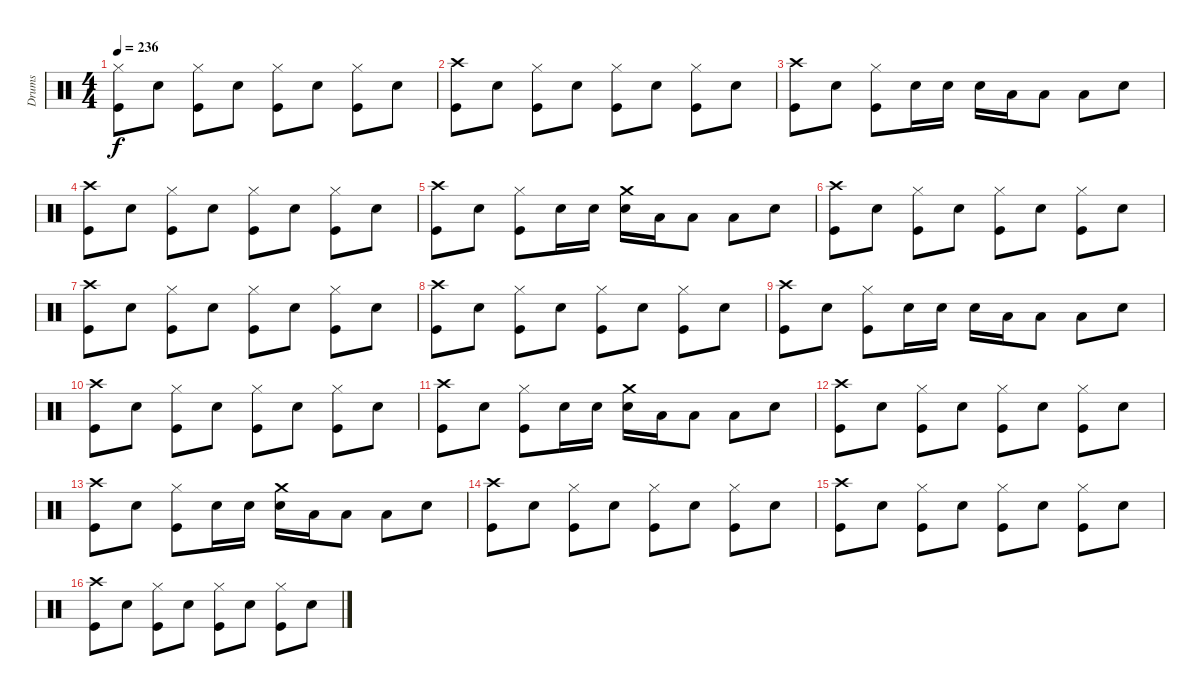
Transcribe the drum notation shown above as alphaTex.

\track ("Drums" "Drums") {instrument percussion}
\staff {score}
\articulation defaults
\ts (4 4)
\tempo 236
\clef neutral
\ks c
("Hi-Hat (closed)" "Kick (hit)").8{dy f} "Snare (hit) 2".8 ("Hi-Hat (closed)" "Kick (hit)").8 "Snare (hit) 2".8 ("Hi-Hat (closed)" "Kick (hit)").8 "Snare (hit) 2".8 ("Hi-Hat (closed)" "Kick (hit)").8 "Snare (hit) 2".8 |
("Crash high (hit)" "Kick (hit)").8 "Snare (hit) 2".8 ("Hi-Hat (closed)" "Kick (hit)").8 "Snare (hit) 2".8 ("Hi-Hat (closed)" "Kick (hit)").8 "Snare (hit) 2".8 ("Hi-Hat (closed)" "Kick (hit)").8 "Snare (hit) 2".8 |
("Crash high (hit)" "Kick (hit)").8 "Snare (hit) 2".8 ("Hi-Hat (closed)" "Kick (hit)").8 "Snare (hit) 2".16 "Snare (hit) 2".16 "Snare (hit) 2".16 "Low Tom (hit)".16 "Low Tom (hit)".8 "Low Tom (hit)".8 "Snare (hit) 2".8 |
("Crash high (hit)" "Kick (hit)").8 "Snare (hit) 2".8 ("Hi-Hat (closed)" "Kick (hit)").8 "Snare (hit) 2".8 ("Hi-Hat (closed)" "Kick (hit)").8 "Snare (hit) 2".8 ("Hi-Hat (closed)" "Kick (hit)").8 "Snare (hit) 2".8 |
("Crash high (hit)" "Kick (hit)").8 "Snare (hit) 2".8 ("Hi-Hat (closed)" "Kick (hit)").8 "Snare (hit) 2".16 "Snare (hit) 2".16 ("Crash medium (hit)" "Snare (hit) 2").16 "Low Tom (hit)".16 "Low Tom (hit)".8 "Low Tom (hit)".8 "Snare (hit) 2".8 |
("Crash high (hit)" "Kick (hit)").8 "Snare (hit) 2".8 ("Hi-Hat (closed)" "Kick (hit)").8 "Snare (hit) 2".8 ("Hi-Hat (closed)" "Kick (hit)").8 "Snare (hit) 2".8 ("Hi-Hat (closed)" "Kick (hit)").8 "Snare (hit) 2".8 |
("Crash high (hit)" "Kick (hit)").8 "Snare (hit) 2".8 ("Hi-Hat (closed)" "Kick (hit)").8 "Snare (hit) 2".8 ("Hi-Hat (closed)" "Kick (hit)").8 "Snare (hit) 2".8 ("Hi-Hat (closed)" "Kick (hit)").8 "Snare (hit) 2".8 |
("Crash high (hit)" "Kick (hit)").8 "Snare (hit) 2".8 ("Hi-Hat (closed)" "Kick (hit)").8 "Snare (hit) 2".8 ("Hi-Hat (closed)" "Kick (hit)").8 "Snare (hit) 2".8 ("Hi-Hat (closed)" "Kick (hit)").8 "Snare (hit) 2".8 |
("Crash high (hit)" "Kick (hit)").8 "Snare (hit) 2".8 ("Hi-Hat (closed)" "Kick (hit)").8 "Snare (hit) 2".16 "Snare (hit) 2".16 "Snare (hit) 2".16 "Low Tom (hit)".16 "Low Tom (hit)".8 "Low Tom (hit)".8 "Snare (hit) 2".8 |
("Crash high (hit)" "Kick (hit)").8 "Snare (hit) 2".8 ("Hi-Hat (closed)" "Kick (hit)").8 "Snare (hit) 2".8 ("Hi-Hat (closed)" "Kick (hit)").8 "Snare (hit) 2".8 ("Hi-Hat (closed)" "Kick (hit)").8 "Snare (hit) 2".8 |
("Crash high (hit)" "Kick (hit)").8 "Snare (hit) 2".8 ("Hi-Hat (closed)" "Kick (hit)").8 "Snare (hit) 2".16 "Snare (hit) 2".16 ("Crash medium (hit)" "Snare (hit) 2").16 "Low Tom (hit)".16 "Low Tom (hit)".8 "Low Tom (hit)".8 "Snare (hit) 2".8 |
("Crash high (hit)" "Kick (hit)").8 "Snare (hit) 2".8 ("Hi-Hat (closed)" "Kick (hit)").8 "Snare (hit) 2".8 ("Hi-Hat (closed)" "Kick (hit)").8 "Snare (hit) 2".8 ("Hi-Hat (closed)" "Kick (hit)").8 "Snare (hit) 2".8 |
("Crash high (hit)" "Kick (hit)").8 "Snare (hit) 2".8 ("Hi-Hat (closed)" "Kick (hit)").8 "Snare (hit) 2".16 "Snare (hit) 2".16 ("Crash medium (hit)" "Snare (hit) 2").16 "Low Tom (hit)".16 "Low Tom (hit)".8 "Low Tom (hit)".8 "Snare (hit) 2".8 |
("Crash high (hit)" "Kick (hit)").8 "Snare (hit) 2".8 ("Hi-Hat (closed)" "Kick (hit)").8 "Snare (hit) 2".8 ("Hi-Hat (closed)" "Kick (hit)").8 "Snare (hit) 2".8 ("Hi-Hat (closed)" "Kick (hit)").8 "Snare (hit) 2".8 |
("Crash high (hit)" "Kick (hit)").8 "Snare (hit) 2".8 ("Hi-Hat (closed)" "Kick (hit)").8 "Snare (hit) 2".8 ("Hi-Hat (closed)" "Kick (hit)").8 "Snare (hit) 2".8 ("Hi-Hat (closed)" "Kick (hit)").8 "Snare (hit) 2".8 |
("Crash high (hit)" "Kick (hit)").8 "Snare (hit) 2".8 ("Hi-Hat (closed)" "Kick (hit)").8 "Snare (hit) 2".8 ("Hi-Hat (closed)" "Kick (hit)").8 "Snare (hit) 2".8 ("Hi-Hat (closed)" "Kick (hit)").8 "Snare (hit) 2".8
